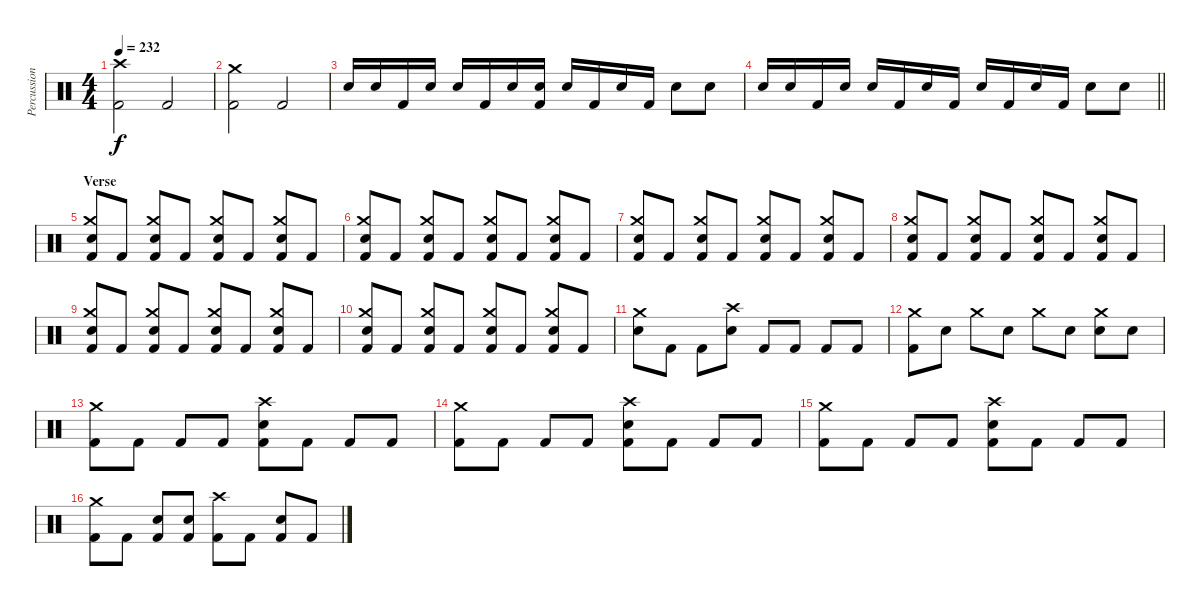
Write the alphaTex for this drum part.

\track ("Percussion" "Percussion") {instrument percussion}
\staff {score}
\articulation defaults
\ts (4 4)
\tempo 232
\clef neutral
\ks c
("Crash high (hit)" "Kick (hit) 2").2{dy f} "Kick (hit) 2".2 |
("Crash medium (hit)" "Kick (hit) 2").2 "Kick (hit) 2".2 |
"Electric Snare (hit)".16 "Electric Snare (hit)".16 "Kick (hit) 2".16 "Electric Snare (hit)".16 "Electric Snare (hit)".16 "Kick (hit) 2".16 "Electric Snare (hit)".16 ("Electric Snare (hit)" "Kick (hit) 2").16 "Electric Snare (hit)".16 "Kick (hit) 2".16 "Electric Snare (hit)".16 "Kick (hit) 2".16 "Electric Snare (hit)".8 "Electric Snare (hit)".8 |
\barLineRight lightlight "Electric Snare (hit)".16 "Electric Snare (hit)".16 "Kick (hit) 2".16 "Electric Snare (hit)".16 "Electric Snare (hit)".16 "Kick (hit) 2".16 "Electric Snare (hit)".16 "Kick (hit) 2".16 "Electric Snare (hit)".16 "Kick (hit) 2".16 "Electric Snare (hit)".16 "Kick (hit) 2".16 "Electric Snare (hit)".8 "Electric Snare (hit)".8
|
\section ("" "Verse")
("Crash medium (hit)" "Electric Snare (hit)" "Kick (hit) 2").8 "Kick (hit) 2".8 ("Crash medium (hit)" "Electric Snare (hit)" "Kick (hit) 2").8 "Kick (hit) 2".8 ("Crash medium (hit)" "Electric Snare (hit)" "Kick (hit) 2").8 "Kick (hit) 2".8 ("Crash medium (hit)" "Electric Snare (hit)" "Kick (hit) 2").8 "Kick (hit) 2".8 |
("Crash medium (hit)" "Electric Snare (hit)" "Kick (hit) 2").8 "Kick (hit) 2".8 ("Crash medium (hit)" "Electric Snare (hit)" "Kick (hit) 2").8 "Kick (hit) 2".8 ("Crash medium (hit)" "Electric Snare (hit)" "Kick (hit) 2").8 "Kick (hit) 2".8 ("Crash medium (hit)" "Electric Snare (hit)" "Kick (hit) 2").8 "Kick (hit) 2".8 |
("Crash medium (hit)" "Electric Snare (hit)" "Kick (hit) 2").8 "Kick (hit) 2".8 ("Crash medium (hit)" "Electric Snare (hit)" "Kick (hit) 2").8 "Kick (hit) 2".8 ("Crash medium (hit)" "Electric Snare (hit)" "Kick (hit) 2").8 "Kick (hit) 2".8 ("Crash medium (hit)" "Electric Snare (hit)" "Kick (hit) 2").8 "Kick (hit) 2".8 |
("Crash medium (hit)" "Electric Snare (hit)" "Kick (hit) 2").8 "Kick (hit) 2".8 ("Crash medium (hit)" "Electric Snare (hit)" "Kick (hit) 2").8 "Kick (hit) 2".8 ("Crash medium (hit)" "Electric Snare (hit)" "Kick (hit) 2").8 "Kick (hit) 2".8 ("Crash medium (hit)" "Electric Snare (hit)" "Kick (hit) 2").8 "Kick (hit) 2".8 |
("Crash medium (hit)" "Electric Snare (hit)" "Kick (hit) 2").8 "Kick (hit) 2".8 ("Crash medium (hit)" "Electric Snare (hit)" "Kick (hit) 2").8 "Kick (hit) 2".8 ("Crash medium (hit)" "Electric Snare (hit)" "Kick (hit) 2").8 "Kick (hit) 2".8 ("Crash medium (hit)" "Electric Snare (hit)" "Kick (hit) 2").8 "Kick (hit) 2".8 |
("Crash medium (hit)" "Electric Snare (hit)" "Kick (hit) 2").8 "Kick (hit) 2".8 ("Crash medium (hit)" "Electric Snare (hit)" "Kick (hit) 2").8 "Kick (hit) 2".8 ("Crash medium (hit)" "Electric Snare (hit)" "Kick (hit) 2").8 "Kick (hit) 2".8 ("Crash medium (hit)" "Electric Snare (hit)" "Kick (hit) 2").8 "Kick (hit) 2".8 |
("Crash medium (hit)" "Electric Snare (hit)").8 "Kick (hit) 2".8 "Kick (hit) 2".8 ("Crash high (hit)" "Electric Snare (hit)").8 "Kick (hit) 2".8 "Kick (hit) 2".8 "Kick (hit) 2".8 "Kick (hit) 2".8 |
("Crash medium (hit)" "Kick (hit) 2").8 "Electric Snare (hit)".8 "Crash medium (hit)".8 "Electric Snare (hit)".8 "Crash medium (hit)".8 "Electric Snare (hit)".8 ("Crash medium (hit)" "Electric Snare (hit)").8 "Electric Snare (hit)".8 |
("Crash medium (hit)" "Kick (hit) 2").8 "Kick (hit) 2".8 "Kick (hit) 2".8 "Kick (hit) 2".8 ("Crash high (hit)" "Electric Snare (hit)" "Kick (hit) 2").8 "Kick (hit) 2".8 "Kick (hit) 2".8 "Kick (hit) 2".8 |
("Crash medium (hit)" "Kick (hit) 2").8 "Kick (hit) 2".8 "Kick (hit) 2".8 "Kick (hit) 2".8 ("Crash high (hit)" "Electric Snare (hit)" "Kick (hit) 2").8 "Kick (hit) 2".8 "Kick (hit) 2".8 "Kick (hit) 2".8 |
("Crash medium (hit)" "Kick (hit) 2").8 "Kick (hit) 2".8 "Kick (hit) 2".8 "Kick (hit) 2".8 ("Crash high (hit)" "Electric Snare (hit)" "Kick (hit) 2").8 "Kick (hit) 2".8 "Kick (hit) 2".8 "Kick (hit) 2".8 |
("Crash medium (hit)" "Kick (hit) 2").8 "Kick (hit) 2".8 ("Electric Snare (hit)" "Kick (hit) 2").8 ("Electric Snare (hit)" "Kick (hit) 2").8 ("Crash high (hit)" "Kick (hit) 2").8 "Kick (hit) 2".8 ("Electric Snare (hit)" "Kick (hit) 2").8 "Kick (hit) 2".8
